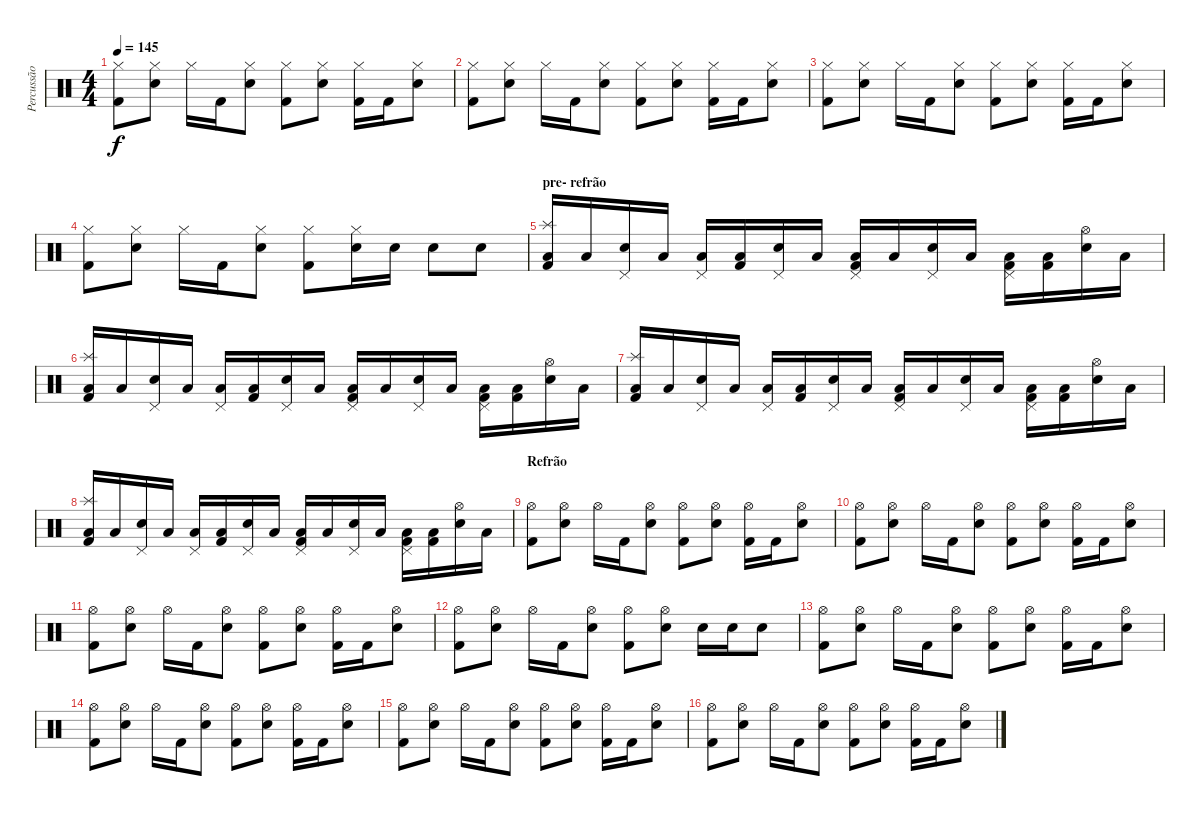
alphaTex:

\track ("Percussão" "Percussão") {instrument percussion}
\staff {score}
\articulation defaults
\ts (4 4)
\tempo 145
\clef neutral
\ks c
("Hi-Hat (closed)" "Kick (hit) 2").8{dy f} ("Hi-Hat (closed)" "Snare (hit) 2").8 "Hi-Hat (closed)".16 "Kick (hit) 2".16 ("Hi-Hat (closed)" "Snare (hit) 2").8 ("Hi-Hat (closed)" "Kick (hit) 2").8 ("Hi-Hat (closed)" "Snare (hit) 2").8 ("Hi-Hat (closed)" "Kick (hit) 2").16 "Kick (hit) 2".16 ("Hi-Hat (closed)" "Snare (hit) 2").8 |
("Hi-Hat (closed)" "Kick (hit) 2").8 ("Hi-Hat (closed)" "Snare (hit) 2").8 "Hi-Hat (closed)".16 "Kick (hit) 2".16 ("Hi-Hat (closed)" "Snare (hit) 2").8 ("Hi-Hat (closed)" "Kick (hit) 2").8 ("Hi-Hat (closed)" "Snare (hit) 2").8 ("Hi-Hat (closed)" "Kick (hit) 2").16 "Kick (hit) 2".16 ("Hi-Hat (closed)" "Snare (hit) 2").8 |
("Hi-Hat (closed)" "Kick (hit) 2").8 ("Hi-Hat (closed)" "Snare (hit) 2").8 "Hi-Hat (closed)".16 "Kick (hit) 2".16 ("Hi-Hat (closed)" "Snare (hit) 2").8 ("Hi-Hat (closed)" "Kick (hit) 2").8 ("Hi-Hat (closed)" "Snare (hit) 2").8 ("Hi-Hat (closed)" "Kick (hit) 2").16 "Kick (hit) 2".16 ("Hi-Hat (closed)" "Snare (hit) 2").8 |
("Hi-Hat (closed)" "Kick (hit) 2").8 ("Hi-Hat (closed)" "Snare (hit) 2").8 "Hi-Hat (closed)".16 "Kick (hit) 2".16 ("Hi-Hat (closed)" "Snare (hit) 2").8 ("Hi-Hat (closed)" "Kick (hit) 2").8 ("Hi-Hat (closed)" "Snare (hit) 2").16 "Snare (hit) 2".16 "Snare (hit) 2".8 "Snare (hit) 2".8 |
\section ("" "pre- refrão")
("Splash (hit)" "Kick (hit) 2" "Low Floor Tom (hit)").16 "Low Floor Tom (hit)".16 ("Pedal Hi-Hat (hit)" "Snare (hit) 2").16 "Low Floor Tom (hit)".16 ("Pedal Hi-Hat (hit)" "Low Floor Tom (hit)").16 ("Kick (hit) 2" "Low Floor Tom (hit)").16 ("Pedal Hi-Hat (hit)" "Snare (hit) 2").16 "Low Floor Tom (hit)".16 ("Pedal Hi-Hat (hit)" "Kick (hit) 2" "Low Floor Tom (hit)").16 "Low Floor Tom (hit)".16 ("Pedal Hi-Hat (hit)" "Snare (hit) 2").16 "Low Floor Tom (hit)".16 ("Pedal Hi-Hat (hit)" "Kick (hit) 2" "Low Floor Tom (hit)").16 ("Kick (hit) 2" "Low Floor Tom (hit)").16 ("Hi-Hat (open)" "Snare (hit) 2").16 "Low Floor Tom (hit)".16 |
("Splash (hit)" "Kick (hit) 2" "Low Floor Tom (hit)").16 "Low Floor Tom (hit)".16 ("Pedal Hi-Hat (hit)" "Snare (hit) 2").16 "Low Floor Tom (hit)".16 ("Pedal Hi-Hat (hit)" "Low Floor Tom (hit)").16 ("Kick (hit) 2" "Low Floor Tom (hit)").16 ("Pedal Hi-Hat (hit)" "Snare (hit) 2").16 "Low Floor Tom (hit)".16 ("Pedal Hi-Hat (hit)" "Kick (hit) 2" "Low Floor Tom (hit)").16 "Low Floor Tom (hit)".16 ("Pedal Hi-Hat (hit)" "Snare (hit) 2").16 "Low Floor Tom (hit)".16 ("Pedal Hi-Hat (hit)" "Kick (hit) 2" "Low Floor Tom (hit)").16 ("Kick (hit) 2" "Low Floor Tom (hit)").16 ("Hi-Hat (open)" "Snare (hit) 2").16 "Low Floor Tom (hit)".16 |
("Splash (hit)" "Kick (hit) 2" "Low Floor Tom (hit)").16 "Low Floor Tom (hit)".16 ("Pedal Hi-Hat (hit)" "Snare (hit) 2").16 "Low Floor Tom (hit)".16 ("Pedal Hi-Hat (hit)" "Low Floor Tom (hit)").16 ("Kick (hit) 2" "Low Floor Tom (hit)").16 ("Pedal Hi-Hat (hit)" "Snare (hit) 2").16 "Low Floor Tom (hit)".16 ("Pedal Hi-Hat (hit)" "Kick (hit) 2" "Low Floor Tom (hit)").16 "Low Floor Tom (hit)".16 ("Pedal Hi-Hat (hit)" "Snare (hit) 2").16 "Low Floor Tom (hit)".16 ("Pedal Hi-Hat (hit)" "Kick (hit) 2" "Low Floor Tom (hit)").16 ("Kick (hit) 2" "Low Floor Tom (hit)").16 ("Hi-Hat (open)" "Snare (hit) 2").16 "Low Floor Tom (hit)".16 |
("Splash (hit)" "Kick (hit) 2" "Low Floor Tom (hit)").16 "Low Floor Tom (hit)".16 ("Pedal Hi-Hat (hit)" "Snare (hit) 2").16 "Low Floor Tom (hit)".16 ("Pedal Hi-Hat (hit)" "Low Floor Tom (hit)").16 ("Kick (hit) 2" "Low Floor Tom (hit)").16 ("Pedal Hi-Hat (hit)" "Snare (hit) 2").16 "Low Floor Tom (hit)".16 ("Pedal Hi-Hat (hit)" "Kick (hit) 2" "Low Floor Tom (hit)").16 "Low Floor Tom (hit)".16 ("Pedal Hi-Hat (hit)" "Snare (hit) 2").16 "Low Floor Tom (hit)".16 ("Pedal Hi-Hat (hit)" "Kick (hit) 2" "Low Floor Tom (hit)").16 ("Kick (hit) 2" "Low Floor Tom (hit)").16 ("Hi-Hat (open)" "Snare (hit) 2").16 "Low Floor Tom (hit)".16 |
\section ("" "Refrão")
("Hi-Hat (open)" "Kick (hit) 2").8 ("Hi-Hat (open)" "Snare (hit) 2").8 "Hi-Hat (open)".16 "Kick (hit) 2".16 ("Hi-Hat (open)" "Snare (hit) 2").8 ("Hi-Hat (open)" "Kick (hit) 2").8 ("Hi-Hat (open)" "Snare (hit) 2").8 ("Hi-Hat (open)" "Kick (hit) 2").16 "Kick (hit) 2".16 ("Hi-Hat (open)" "Snare (hit) 2").8 |
("Hi-Hat (open)" "Kick (hit) 2").8 ("Hi-Hat (open)" "Snare (hit) 2").8 "Hi-Hat (open)".16 "Kick (hit) 2".16 ("Hi-Hat (open)" "Snare (hit) 2").8 ("Hi-Hat (open)" "Kick (hit) 2").8 ("Hi-Hat (open)" "Snare (hit) 2").8 ("Hi-Hat (open)" "Kick (hit) 2").16 "Kick (hit) 2".16 ("Hi-Hat (open)" "Snare (hit) 2").8 |
("Hi-Hat (open)" "Kick (hit) 2").8 ("Hi-Hat (open)" "Snare (hit) 2").8 "Hi-Hat (open)".16 "Kick (hit) 2".16 ("Hi-Hat (open)" "Snare (hit) 2").8 ("Hi-Hat (open)" "Kick (hit) 2").8 ("Hi-Hat (open)" "Snare (hit) 2").8 ("Hi-Hat (open)" "Kick (hit) 2").16 "Kick (hit) 2".16 ("Hi-Hat (open)" "Snare (hit) 2").8 |
("Hi-Hat (open)" "Kick (hit) 2").8 ("Hi-Hat (open)" "Snare (hit) 2").8 "Hi-Hat (open)".16 "Kick (hit) 2".16 ("Hi-Hat (open)" "Snare (hit) 2").8 ("Hi-Hat (open)" "Kick (hit) 2").8 ("Hi-Hat (open)" "Snare (hit) 2").8 "Snare (hit) 2".16 "Snare (hit) 2".16 "Snare (hit) 2".8 |
("Hi-Hat (open)" "Kick (hit) 2").8 ("Hi-Hat (open)" "Snare (hit) 2").8 "Hi-Hat (open)".16 "Kick (hit) 2".16 ("Hi-Hat (open)" "Snare (hit) 2").8 ("Hi-Hat (open)" "Kick (hit) 2").8 ("Hi-Hat (open)" "Snare (hit) 2").8 ("Hi-Hat (open)" "Kick (hit) 2").16 "Kick (hit) 2".16 ("Hi-Hat (open)" "Snare (hit) 2").8 |
("Hi-Hat (open)" "Kick (hit) 2").8 ("Hi-Hat (open)" "Snare (hit) 2").8 "Hi-Hat (open)".16 "Kick (hit) 2".16 ("Hi-Hat (open)" "Snare (hit) 2").8 ("Hi-Hat (open)" "Kick (hit) 2").8 ("Hi-Hat (open)" "Snare (hit) 2").8 ("Hi-Hat (open)" "Kick (hit) 2").16 "Kick (hit) 2".16 ("Hi-Hat (open)" "Snare (hit) 2").8 |
("Hi-Hat (open)" "Kick (hit) 2").8 ("Hi-Hat (open)" "Snare (hit) 2").8 "Hi-Hat (open)".16 "Kick (hit) 2".16 ("Hi-Hat (open)" "Snare (hit) 2").8 ("Hi-Hat (open)" "Kick (hit) 2").8 ("Hi-Hat (open)" "Snare (hit) 2").8 ("Hi-Hat (open)" "Kick (hit) 2").16 "Kick (hit) 2".16 ("Hi-Hat (open)" "Snare (hit) 2").8 |
("Hi-Hat (open)" "Kick (hit) 2").8 ("Hi-Hat (open)" "Snare (hit) 2").8 "Hi-Hat (open)".16 "Kick (hit) 2".16 ("Hi-Hat (open)" "Snare (hit) 2").8 ("Hi-Hat (open)" "Kick (hit) 2").8 ("Hi-Hat (open)" "Snare (hit) 2").8 ("Hi-Hat (open)" "Kick (hit) 2").16 "Kick (hit) 2".16 ("Hi-Hat (open)" "Snare (hit) 2").8
